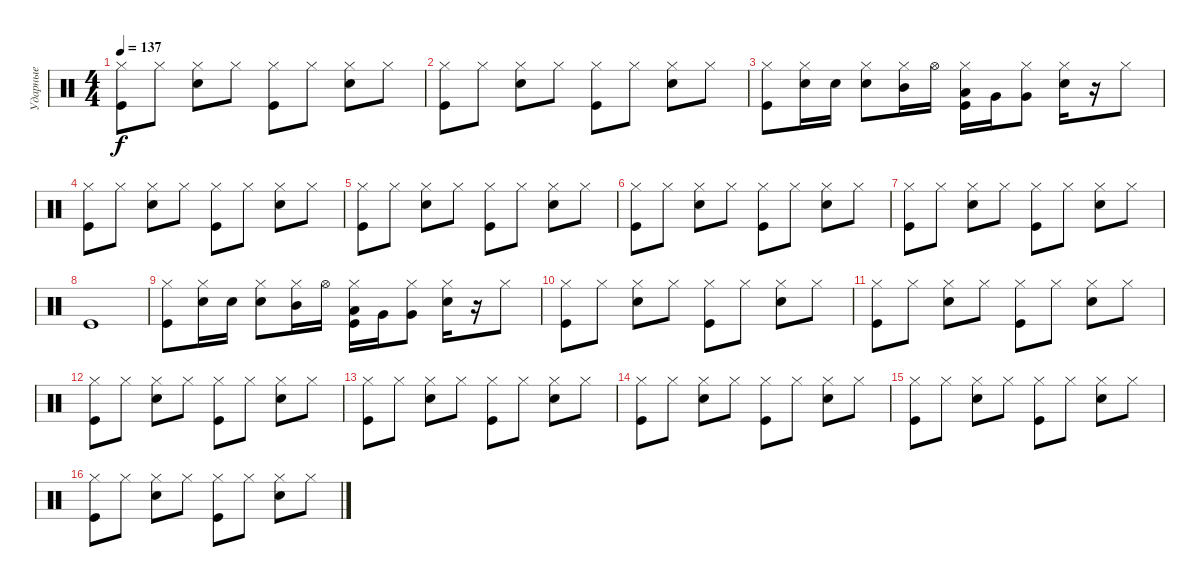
\track ("Ударные" "Ударные") {instrument percussion}
\staff {score}
\articulation defaults
\ts (4 4)
\tempo 137
\clef neutral
\ks c
("Hi-Hat (closed)" "Kick (hit)").8{dy f} "Hi-Hat (closed)".8 ("Hi-Hat (closed)" "Snare (hit) 2").8 "Hi-Hat (closed)".8 ("Hi-Hat (closed)" "Kick (hit)").8 "Hi-Hat (closed)".8 ("Hi-Hat (closed)" "Snare (hit) 2").8 "Hi-Hat (closed)".8 |
("Hi-Hat (closed)" "Kick (hit)").8 "Hi-Hat (closed)".8 ("Hi-Hat (closed)" "Snare (hit) 2").8 "Hi-Hat (closed)".8 ("Hi-Hat (closed)" "Kick (hit)").8 "Hi-Hat (closed)".8 ("Hi-Hat (closed)" "Snare (hit) 2").8 "Hi-Hat (closed)".8 |
("Hi-Hat (closed)" "Kick (hit)").8 ("Hi-Hat (closed)" "Snare (hit) 2").16 "Snare (hit) 2".16 ("Hi-Hat (closed)" "Snare (hit) 2").8 ("Hi-Hat (closed)" "Mid Tom (hit)").16 "Hi-Hat (open)".16 ("Hi-Hat (closed)" "Low Tom (hit)" "Kick (hit)").16 "Very Low Tom (hit)".16 ("Very Low Tom (hit)" "Hi-Hat (closed)").8 ("Hi-Hat (closed)" "Snare (hit) 2").16 r.16 "Hi-Hat (closed)".8 |
("Hi-Hat (closed)" "Kick (hit)").8 "Hi-Hat (closed)".8 ("Hi-Hat (closed)" "Snare (hit) 2").8 "Hi-Hat (closed)".8 ("Hi-Hat (closed)" "Kick (hit)").8 "Hi-Hat (closed)".8 ("Hi-Hat (closed)" "Snare (hit) 2").8 "Hi-Hat (closed)".8 |
("Hi-Hat (closed)" "Kick (hit)").8 "Hi-Hat (closed)".8 ("Hi-Hat (closed)" "Snare (hit) 2").8 "Hi-Hat (closed)".8 ("Hi-Hat (closed)" "Kick (hit)").8 "Hi-Hat (closed)".8 ("Hi-Hat (closed)" "Snare (hit) 2").8 "Hi-Hat (closed)".8 |
("Hi-Hat (closed)" "Kick (hit)").8 "Hi-Hat (closed)".8 ("Hi-Hat (closed)" "Snare (hit) 2").8 "Hi-Hat (closed)".8 ("Hi-Hat (closed)" "Kick (hit)").8 "Hi-Hat (closed)".8 ("Hi-Hat (closed)" "Snare (hit) 2").8 "Hi-Hat (closed)".8 |
("Hi-Hat (closed)" "Kick (hit)").8 "Hi-Hat (closed)".8 ("Hi-Hat (closed)" "Snare (hit) 2").8 "Hi-Hat (closed)".8 ("Hi-Hat (closed)" "Kick (hit)").8 "Hi-Hat (closed)".8 ("Hi-Hat (closed)" "Snare (hit) 2").8 "Hi-Hat (closed)".8 |
"Kick (hit)".1 |
("Hi-Hat (closed)" "Kick (hit)").8 ("Hi-Hat (closed)" "Snare (hit) 2").16 "Snare (hit) 2".16 ("Hi-Hat (closed)" "Snare (hit) 2").8 ("Hi-Hat (closed)" "Mid Tom (hit)").16 "Hi-Hat (open)".16 ("Hi-Hat (closed)" "Low Tom (hit)" "Kick (hit)").16 "Very Low Tom (hit)".16 ("Very Low Tom (hit)" "Hi-Hat (closed)").8 ("Hi-Hat (closed)" "Snare (hit) 2").16 r.16 "Hi-Hat (closed)".8 |
("Hi-Hat (closed)" "Kick (hit)").8 "Hi-Hat (closed)".8 ("Hi-Hat (closed)" "Snare (hit) 2").8 "Hi-Hat (closed)".8 ("Hi-Hat (closed)" "Kick (hit)").8 "Hi-Hat (closed)".8 ("Hi-Hat (closed)" "Snare (hit) 2").8 "Hi-Hat (closed)".8 |
("Hi-Hat (closed)" "Kick (hit)").8 "Hi-Hat (closed)".8 ("Hi-Hat (closed)" "Snare (hit) 2").8 "Hi-Hat (closed)".8 ("Hi-Hat (closed)" "Kick (hit)").8 "Hi-Hat (closed)".8 ("Hi-Hat (closed)" "Snare (hit) 2").8 "Hi-Hat (closed)".8 |
("Hi-Hat (closed)" "Kick (hit)").8 "Hi-Hat (closed)".8 ("Hi-Hat (closed)" "Snare (hit) 2").8 "Hi-Hat (closed)".8 ("Hi-Hat (closed)" "Kick (hit)").8 "Hi-Hat (closed)".8 ("Hi-Hat (closed)" "Snare (hit) 2").8 "Hi-Hat (closed)".8 |
("Hi-Hat (closed)" "Kick (hit)").8 "Hi-Hat (closed)".8 ("Hi-Hat (closed)" "Snare (hit) 2").8 "Hi-Hat (closed)".8 ("Hi-Hat (closed)" "Kick (hit)").8 "Hi-Hat (closed)".8 ("Hi-Hat (closed)" "Snare (hit) 2").8 "Hi-Hat (closed)".8 |
("Hi-Hat (closed)" "Kick (hit)").8 "Hi-Hat (closed)".8 ("Hi-Hat (closed)" "Snare (hit) 2").8 "Hi-Hat (closed)".8 ("Hi-Hat (closed)" "Kick (hit)").8 "Hi-Hat (closed)".8 ("Hi-Hat (closed)" "Snare (hit) 2").8 "Hi-Hat (closed)".8 |
("Hi-Hat (closed)" "Kick (hit)").8 "Hi-Hat (closed)".8 ("Hi-Hat (closed)" "Snare (hit) 2").8 "Hi-Hat (closed)".8 ("Hi-Hat (closed)" "Kick (hit)").8 "Hi-Hat (closed)".8 ("Hi-Hat (closed)" "Snare (hit) 2").8 "Hi-Hat (closed)".8 |
("Hi-Hat (closed)" "Kick (hit)").8 "Hi-Hat (closed)".8 ("Hi-Hat (closed)" "Snare (hit) 2").8 "Hi-Hat (closed)".8 ("Hi-Hat (closed)" "Kick (hit)").8 "Hi-Hat (closed)".8 ("Hi-Hat (closed)" "Snare (hit) 2").8 "Hi-Hat (closed)".8
